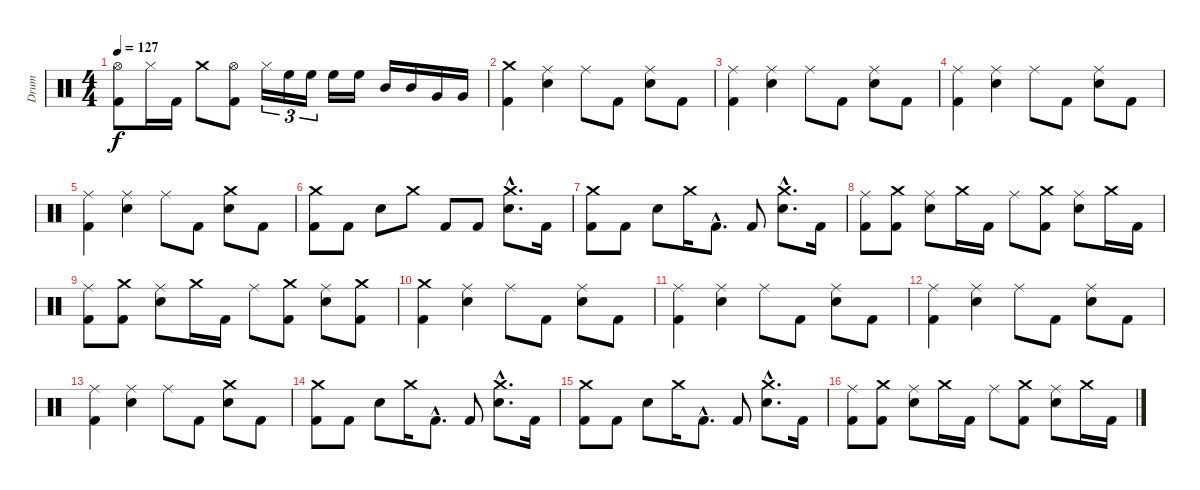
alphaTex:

\track ("Drum" "Drum") {instrument percussion}
\staff {score}
\articulation defaults
\ts (4 4)
\tempo 127
\clef neutral
\ks c
("Hi-Hat (open)" "Kick (hit) 2").8{dy f} "Hi-Hat (closed)".16 "Kick (hit) 2".16 "Crash medium (hit)".8 ("Hi-Hat (open)" "Kick (hit) 2").8 "Hi-Hat (closed)".16{tu (3 2)} "High Floor Tom (hit)".16{tu (3 2)} "High Floor Tom (hit)".16{tu (3 2)} "High Floor Tom (hit)".16 "High Floor Tom (hit)".16 "Mid Tom (hit)".16 "Mid Tom (hit)".16 "Very Low Tom (hit)".16 "Very Low Tom (hit)".16 |
("Crash medium (hit)" "Kick (hit) 2").4 ("Snare (hit) 2" "Ride (middle)").4 "Ride (middle)".8 "Kick (hit) 2".8 ("Snare (hit) 2" "Ride (middle)").8 "Kick (hit) 2".8 |
("Ride (middle)" "Kick (hit) 2").4 ("Ride (middle)" "Snare (hit) 2").4 "Ride (middle)".8 "Kick (hit) 2".8 ("Ride (middle)" "Snare (hit) 2").8 "Kick (hit) 2".8 |
("Ride (middle)" "Kick (hit) 2").4 ("Ride (middle)" "Snare (hit) 2").4 "Ride (middle)".8 "Kick (hit) 2".8 ("Ride (middle)" "Snare (hit) 2").8 "Kick (hit) 2".8 |
("Ride (middle)" "Kick (hit) 2").4 ("Ride (middle)" "Snare (hit) 2").4 "Ride (middle)".8 "Kick (hit) 2".8 ("Snare (hit) 2" "Crash medium (hit)").8 "Kick (hit) 2".8 |
("Crash medium (hit)" "Kick (hit) 2").8 "Kick (hit) 2".8 "Snare (hit) 2".8 "Crash medium (hit)".8 "Kick (hit) 2".8 "Kick (hit) 2".8 ("Crash medium (hit)"{hac} "Snare (hit) 2"{hac}).8{d} "Kick (hit) 2".16 |
("Crash medium (hit)" "Kick (hit) 2").8 "Kick (hit) 2".8 "Snare (hit) 2".8 "Crash medium (hit)".16 "Kick (hit) 2"{hac}.8{d} "Kick (hit) 2".8 ("Crash medium (hit)"{hac} "Snare (hit) 2"{hac}).8{d} "Kick (hit) 2".16 |
("Ride (middle)" "Kick (hit) 2").8 ("Crash medium (hit)" "Kick (hit) 2").8 ("Ride (middle)" "Snare (hit) 2").8 "Crash medium (hit)".16 "Kick (hit) 2".16 "Ride (middle)".8 ("Crash medium (hit)" "Kick (hit) 2").8 ("Ride (middle)" "Snare (hit) 2").8 "Crash medium (hit)".16 "Kick (hit) 2".16 |
("Ride (middle)" "Kick (hit) 2").8 ("Crash medium (hit)" "Kick (hit) 2").8 ("Ride (middle)" "Snare (hit) 2").8 "Crash medium (hit)".16 "Kick (hit) 2".16 "Ride (middle)".8 ("Crash medium (hit)" "Kick (hit) 2").8 ("Ride (middle)" "Snare (hit) 2").8 ("Crash medium (hit)" "Kick (hit) 2").8 |
("Crash medium (hit)" "Kick (hit) 2").4 ("Snare (hit) 2" "Ride (middle)").4 "Ride (middle)".8 "Kick (hit) 2".8 ("Snare (hit) 2" "Ride (middle)").8 "Kick (hit) 2".8 |
("Ride (middle)" "Kick (hit) 2").4 ("Ride (middle)" "Snare (hit) 2").4 "Ride (middle)".8 "Kick (hit) 2".8 ("Ride (middle)" "Snare (hit) 2").8 "Kick (hit) 2".8 |
("Ride (middle)" "Kick (hit) 2").4 ("Ride (middle)" "Snare (hit) 2").4 "Ride (middle)".8 "Kick (hit) 2".8 ("Ride (middle)" "Snare (hit) 2").8 "Kick (hit) 2".8 |
("Ride (middle)" "Kick (hit) 2").4 ("Ride (middle)" "Snare (hit) 2").4 "Ride (middle)".8 "Kick (hit) 2".8 ("Snare (hit) 2" "Crash medium (hit)").8 "Kick (hit) 2".8 |
("Crash medium (hit)" "Kick (hit) 2").8 "Kick (hit) 2".8 "Snare (hit) 2".8 "Crash medium (hit)".16 "Kick (hit) 2"{hac}.8{d} "Kick (hit) 2".8 ("Crash medium (hit)"{hac} "Snare (hit) 2"{hac}).8{d} "Kick (hit) 2".16 |
("Crash medium (hit)" "Kick (hit) 2").8 "Kick (hit) 2".8 "Snare (hit) 2".8 "Crash medium (hit)".16 "Kick (hit) 2"{hac}.8{d} "Kick (hit) 2".8 ("Crash medium (hit)"{hac} "Snare (hit) 2"{hac}).8{d} "Kick (hit) 2".16 |
("Ride (middle)" "Kick (hit) 2").8 ("Crash medium (hit)" "Kick (hit) 2").8 ("Ride (middle)" "Snare (hit) 2").8 "Crash medium (hit)".16 "Kick (hit) 2".16 "Ride (middle)".8 ("Crash medium (hit)" "Kick (hit) 2").8 ("Ride (middle)" "Snare (hit) 2").8 "Crash medium (hit)".16 "Kick (hit) 2".16
